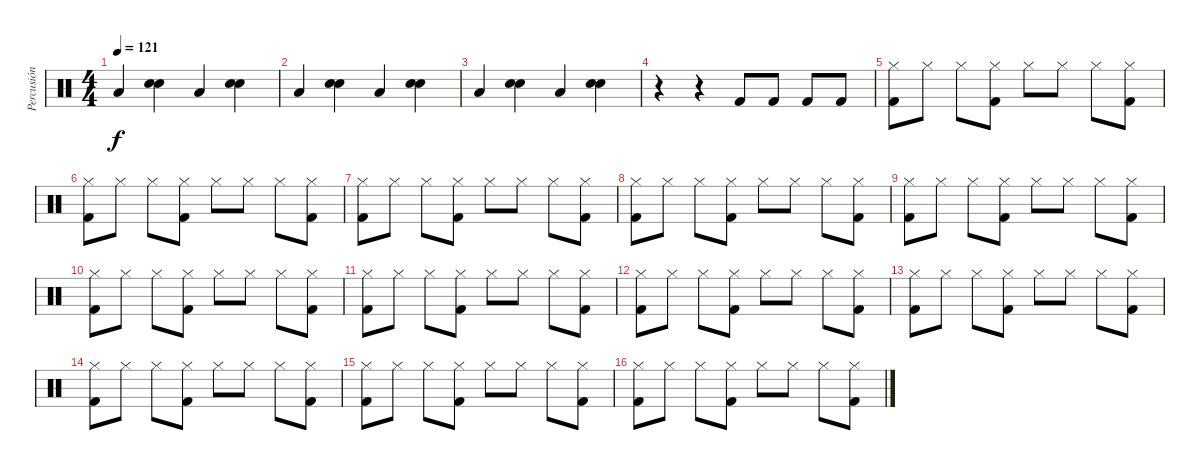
\track ("Percusión" "Percusión") {instrument percussion}
\staff {score}
\articulation defaults
\ts (4 4)
\tempo 121
\clef neutral
\ks c "Low Tom (hit)".4{dy f}
("Snare (hit) 2" "Snare (hit) 2").4 "Low Tom (hit)".4 ("Snare (hit) 2" "Snare (hit) 2").4 |
"Low Tom (hit)".4 ("Snare (hit) 2" "Snare (hit) 2").4 "Low Tom (hit)".4 ("Snare (hit) 2" "Snare (hit) 2").4 |
"Low Tom (hit)".4 ("Snare (hit) 2" "Snare (hit) 2").4 "Low Tom (hit)".4 ("Snare (hit) 2" "Snare (hit) 2").4 |
r.4 r.4 "Kick (hit) 2".8 "Kick (hit) 2".8 "Kick (hit) 2".8 "Kick (hit) 2".8 |
("Kick (hit) 2" "Hi-Hat (closed)").8 "Hi-Hat (closed)".8 "Hi-Hat (closed)".8 ("Kick (hit) 2" "Hi-Hat (closed)").8 "Hi-Hat (closed)".8 "Hi-Hat (closed)".8 "Hi-Hat (closed)".8 ("Kick (hit) 2" "Hi-Hat (closed)").8 |
("Kick (hit) 2" "Hi-Hat (closed)").8 "Hi-Hat (closed)".8 "Hi-Hat (closed)".8 ("Kick (hit) 2" "Hi-Hat (closed)").8 "Hi-Hat (closed)".8 "Hi-Hat (closed)".8 "Hi-Hat (closed)".8 ("Kick (hit) 2" "Hi-Hat (closed)").8 |
("Kick (hit) 2" "Hi-Hat (closed)").8 "Hi-Hat (closed)".8 "Hi-Hat (closed)".8 ("Kick (hit) 2" "Hi-Hat (closed)").8 "Hi-Hat (closed)".8 "Hi-Hat (closed)".8 "Hi-Hat (closed)".8 ("Kick (hit) 2" "Hi-Hat (closed)").8 |
("Kick (hit) 2" "Hi-Hat (closed)").8 "Hi-Hat (closed)".8 "Hi-Hat (closed)".8 ("Kick (hit) 2" "Hi-Hat (closed)").8 "Hi-Hat (closed)".8 "Hi-Hat (closed)".8 "Hi-Hat (closed)".8 ("Kick (hit) 2" "Hi-Hat (closed)").8 |
("Kick (hit) 2" "Hi-Hat (closed)").8 "Hi-Hat (closed)".8 "Hi-Hat (closed)".8 ("Kick (hit) 2" "Hi-Hat (closed)").8 "Hi-Hat (closed)".8 "Hi-Hat (closed)".8 "Hi-Hat (closed)".8 ("Kick (hit) 2" "Hi-Hat (closed)").8 |
("Kick (hit) 2" "Hi-Hat (closed)").8 "Hi-Hat (closed)".8 "Hi-Hat (closed)".8 ("Kick (hit) 2" "Hi-Hat (closed)").8 "Hi-Hat (closed)".8 "Hi-Hat (closed)".8 "Hi-Hat (closed)".8 ("Kick (hit) 2" "Hi-Hat (closed)").8 |
("Kick (hit) 2" "Hi-Hat (closed)").8 "Hi-Hat (closed)".8 "Hi-Hat (closed)".8 ("Kick (hit) 2" "Hi-Hat (closed)").8 "Hi-Hat (closed)".8 "Hi-Hat (closed)".8 "Hi-Hat (closed)".8 ("Kick (hit) 2" "Hi-Hat (closed)").8 |
("Kick (hit) 2" "Hi-Hat (closed)").8 "Hi-Hat (closed)".8 "Hi-Hat (closed)".8 ("Kick (hit) 2" "Hi-Hat (closed)").8 "Hi-Hat (closed)".8 "Hi-Hat (closed)".8 "Hi-Hat (closed)".8 ("Kick (hit) 2" "Hi-Hat (closed)").8 |
("Kick (hit) 2" "Hi-Hat (closed)").8 "Hi-Hat (closed)".8 "Hi-Hat (closed)".8 ("Kick (hit) 2" "Hi-Hat (closed)").8 "Hi-Hat (closed)".8 "Hi-Hat (closed)".8 "Hi-Hat (closed)".8 ("Kick (hit) 2" "Hi-Hat (closed)").8 |
("Kick (hit) 2" "Hi-Hat (closed)").8 "Hi-Hat (closed)".8 "Hi-Hat (closed)".8 ("Kick (hit) 2" "Hi-Hat (closed)").8 "Hi-Hat (closed)".8 "Hi-Hat (closed)".8 "Hi-Hat (closed)".8 ("Kick (hit) 2" "Hi-Hat (closed)").8 |
("Kick (hit) 2" "Hi-Hat (closed)").8 "Hi-Hat (closed)".8 "Hi-Hat (closed)".8 ("Kick (hit) 2" "Hi-Hat (closed)").8 "Hi-Hat (closed)".8 "Hi-Hat (closed)".8 "Hi-Hat (closed)".8 ("Kick (hit) 2" "Hi-Hat (closed)").8 |
("Kick (hit) 2" "Hi-Hat (closed)").8 "Hi-Hat (closed)".8 "Hi-Hat (closed)".8 ("Kick (hit) 2" "Hi-Hat (closed)").8 "Hi-Hat (closed)".8 "Hi-Hat (closed)".8 "Hi-Hat (closed)".8 ("Kick (hit) 2" "Hi-Hat (closed)").8
